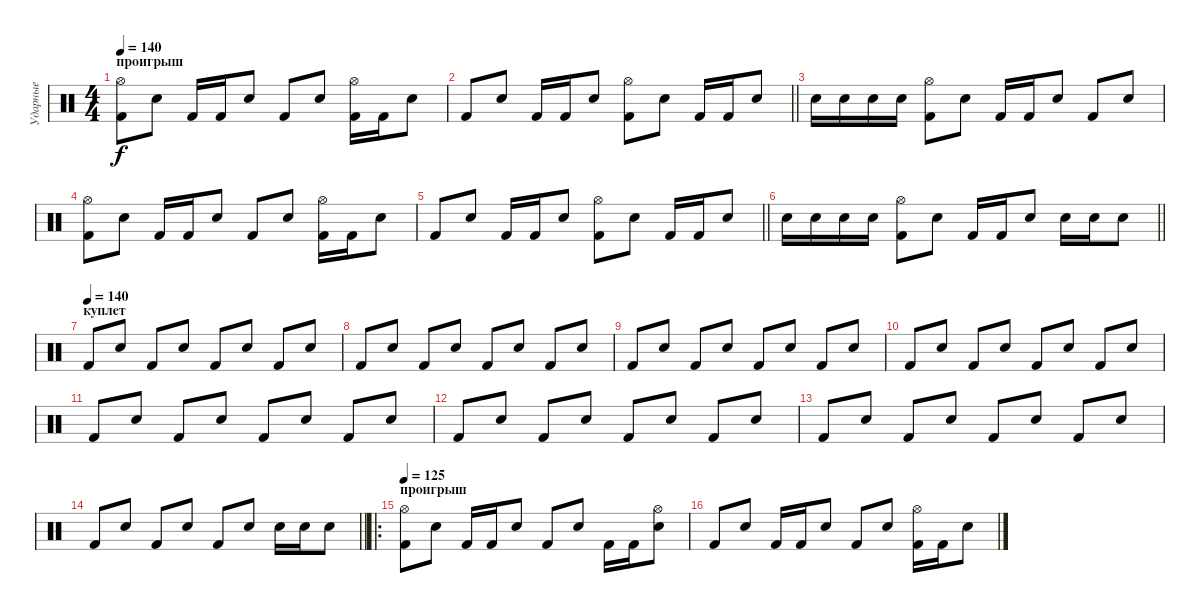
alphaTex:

\track ("Ударные" "Ударные") {instrument percussion}
\staff {score}
\articulation defaults
\ts (4 4)
\section ("" "проигрыш")
\tempo 140
\clef neutral
\ks c
("Kick (hit) 2" "Hi-Hat (open)").8{dy f} "Electric Snare (hit)".8 "Kick (hit) 2".16 "Kick (hit) 2".16 "Electric Snare (hit)".8 "Kick (hit) 2".8 "Electric Snare (hit)".8 ("Kick (hit) 2" "Hi-Hat (open)").16 "Kick (hit) 2".16 "Electric Snare (hit)".8 |
\barLineRight lightlight "Kick (hit) 2".8 "Electric Snare (hit)".8 "Kick (hit) 2".16 "Kick (hit) 2".16 "Electric Snare (hit)".8
("Kick (hit) 2" "Hi-Hat (open)").8 "Electric Snare (hit)".8 "Kick (hit) 2".16 "Kick (hit) 2".16 "Electric Snare (hit)".8 |
"Snare (hit) 2".16 "Snare (hit) 2".16 "Snare (hit) 2".16 "Snare (hit) 2".16 ("Kick (hit) 2" "Hi-Hat (open)").8 "Snare (hit) 2".8 "Kick (hit) 2".16 "Kick (hit) 2".16 "Snare (hit) 2".8 "Kick (hit) 2".8 "Snare (hit) 2".8 |
("Kick (hit) 2" "Hi-Hat (open)").8 "Electric Snare (hit)".8 "Kick (hit) 2".16 "Kick (hit) 2".16 "Electric Snare (hit)".8 "Kick (hit) 2".8 "Electric Snare (hit)".8 ("Kick (hit) 2" "Hi-Hat (open)").16 "Kick (hit) 2".16 "Electric Snare (hit)".8 |
\barLineRight lightlight "Kick (hit) 2".8 "Electric Snare (hit)".8 "Kick (hit) 2".16 "Kick (hit) 2".16 "Electric Snare (hit)".8
("Kick (hit) 2" "Hi-Hat (open)").8 "Electric Snare (hit)".8 "Kick (hit) 2".16 "Kick (hit) 2".16 "Electric Snare (hit)".8 |
\barLineRight lightlight "Snare (hit) 2".16 "Snare (hit) 2".16 "Snare (hit) 2".16 "Snare (hit) 2".16
("Kick (hit) 2" "Hi-Hat (open)").8 "Snare (hit) 2".8 "Kick (hit) 2".16 "Kick (hit) 2".16 "Snare (hit) 2".8 "Snare (hit) 2".16 "Snare (hit) 2".16 "Snare (hit) 2".8 |
\section ("" "куплет")
\tempo (140)
"Kick (hit) 2".8 "Snare (hit) 2".8 "Kick (hit) 2".8 "Snare (hit) 2".8 "Kick (hit) 2".8 "Snare (hit) 2".8 "Kick (hit) 2".8 "Snare (hit) 2".8 |
"Kick (hit) 2".8 "Snare (hit) 2".8 "Kick (hit) 2".8 "Snare (hit) 2".8 "Kick (hit) 2".8 "Snare (hit) 2".8 "Kick (hit) 2".8 "Snare (hit) 2".8 |
"Kick (hit) 2".8 "Snare (hit) 2".8 "Kick (hit) 2".8 "Snare (hit) 2".8 "Kick (hit) 2".8 "Snare (hit) 2".8 "Kick (hit) 2".8 "Snare (hit) 2".8 |
"Kick (hit) 2".8 "Snare (hit) 2".8 "Kick (hit) 2".8 "Snare (hit) 2".8 "Kick (hit) 2".8 "Snare (hit) 2".8 "Kick (hit) 2".8 "Snare (hit) 2".8 |
"Kick (hit) 2".8 "Snare (hit) 2".8 "Kick (hit) 2".8 "Snare (hit) 2".8 "Kick (hit) 2".8 "Snare (hit) 2".8 "Kick (hit) 2".8 "Snare (hit) 2".8 |
"Kick (hit) 2".8 "Snare (hit) 2".8 "Kick (hit) 2".8 "Snare (hit) 2".8 "Kick (hit) 2".8 "Snare (hit) 2".8 "Kick (hit) 2".8 "Snare (hit) 2".8 |
"Kick (hit) 2".8 "Snare (hit) 2".8 "Kick (hit) 2".8 "Snare (hit) 2".8 "Kick (hit) 2".8 "Snare (hit) 2".8 "Kick (hit) 2".8 "Snare (hit) 2".8 |
\barLineRight lightlight "Kick (hit) 2".8 "Snare (hit) 2".8 "Kick (hit) 2".8 "Snare (hit) 2".8 "Kick (hit) 2".8 "Electric Snare (hit)".8 "Electric Snare (hit)".16 "Electric Snare (hit)".16 "Electric Snare (hit)".8
|
\ro
\section ("" "проигрыш")
\tempo 125
("Kick (hit) 2" "Hi-Hat (open)").8 "Electric Snare (hit)".8 "Kick (hit) 2".16 "Kick (hit) 2".16 "Electric Snare (hit)".8 "Kick (hit) 2".8 "Electric Snare (hit)".8 "Kick (hit) 2".16 "Kick (hit) 2".16 ("Electric Snare (hit)" "Hi-Hat (open)").8 |
"Kick (hit) 2".8 "Electric Snare (hit)".8 "Kick (hit) 2".16 "Kick (hit) 2".16 "Electric Snare (hit)".8 "Kick (hit) 2".8 "Electric Snare (hit)".8 ("Kick (hit) 2" "Hi-Hat (open)").16 "Kick (hit) 2".16 "Electric Snare (hit)".8
